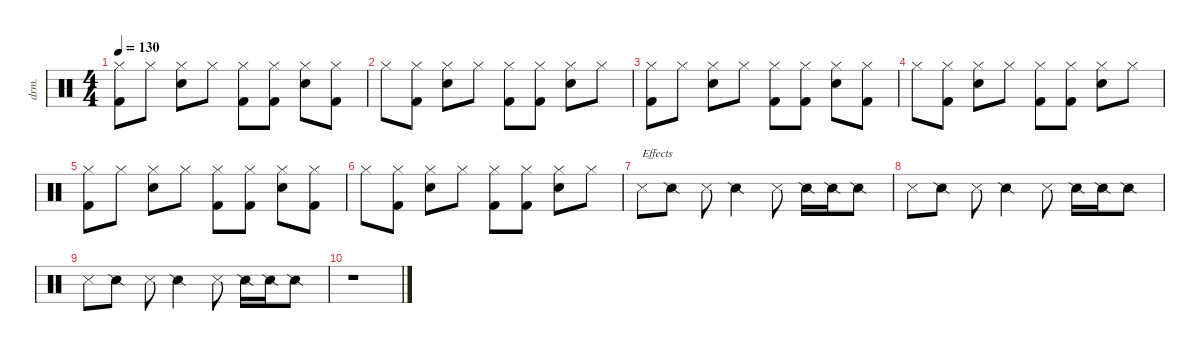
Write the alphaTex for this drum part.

\defaultSystemsLayout 4
\hideDynamics
\bracketExtendMode nobrackets
\otherSystemsTrackNameOrientation horizontal
\track ("Jimmy" "drm.") {instrument percussion}
\staff {score}
\articulation defaults
\ts (4 4)
\tempo 130
\clef neutral
\ks c
("Hi-Hat (closed)" "Kick (hit) 2").8{dy f beam Down} "Hi-Hat (closed)".8{beam Down} ("Hi-Hat (closed)" "Snare (hit) 2").8{beam Down} "Hi-Hat (closed)".8{beam Down} ("Hi-Hat (closed)" "Kick (hit) 2").8{beam Down} ("Hi-Hat (closed)" "Kick (hit) 2").8{beam Down} ("Hi-Hat (closed)" "Snare (hit) 2").8{beam Down} ("Hi-Hat (closed)" "Kick (hit) 2").8{beam Down} |
"Hi-Hat (closed)".8{beam Down} ("Hi-Hat (closed)" "Kick (hit) 2").8{beam Down} ("Hi-Hat (closed)" "Snare (hit) 2").8{beam Down} "Hi-Hat (closed)".8{beam Down} ("Hi-Hat (closed)" "Kick (hit) 2").8{beam Down} ("Hi-Hat (closed)" "Kick (hit) 2").8{beam Down} ("Hi-Hat (closed)" "Snare (hit) 2").8{beam Down} "Hi-Hat (closed)".8{beam Down} |
("Hi-Hat (closed)" "Kick (hit) 2").8{beam Down} "Hi-Hat (closed)".8{beam Down} ("Hi-Hat (closed)" "Snare (hit) 2").8{beam Down} "Hi-Hat (closed)".8{beam Down} ("Hi-Hat (closed)" "Kick (hit) 2").8{beam Down} ("Hi-Hat (closed)" "Kick (hit) 2").8{beam Down} ("Hi-Hat (closed)" "Snare (hit) 2").8{beam Down} ("Hi-Hat (closed)" "Kick (hit) 2").8{beam Down} |
"Hi-Hat (closed)".8{beam Down} ("Hi-Hat (closed)" "Kick (hit) 2").8{beam Down} ("Hi-Hat (closed)" "Snare (hit) 2").8{beam Down} "Hi-Hat (closed)".8{beam Down} ("Hi-Hat (closed)" "Kick (hit) 2").8{beam Down} ("Hi-Hat (closed)" "Kick (hit) 2").8{beam Down} ("Hi-Hat (closed)" "Snare (hit) 2").8{beam Down} "Hi-Hat (closed)".8{beam Down} |
("Hi-Hat (closed)" "Kick (hit) 2").8{beam Down} "Hi-Hat (closed)".8{beam Down} ("Hi-Hat (closed)" "Snare (hit) 2").8{beam Down} "Hi-Hat (closed)".8{beam Down} ("Hi-Hat (closed)" "Kick (hit) 2").8{beam Down} ("Hi-Hat (closed)" "Kick (hit) 2").8{beam Down} ("Hi-Hat (closed)" "Snare (hit) 2").8{beam Down} ("Hi-Hat (closed)" "Kick (hit) 2").8{beam Down} |
"Hi-Hat (closed)".8{beam Down} ("Hi-Hat (closed)" "Kick (hit) 2").8{beam Down} ("Hi-Hat (closed)" "Snare (hit) 2").8{beam Down} "Hi-Hat (closed)".8{beam Down} ("Hi-Hat (closed)" "Kick (hit) 2").8{beam Down} ("Hi-Hat (closed)" "Kick (hit) 2").8{beam Down} ("Hi-Hat (closed)" "Snare (hit) 2").8{beam Down} "Hi-Hat (closed)".8{beam Down} |
"Metronome (hit)".8{txt "Effects" beam Down} "Snare (side stick) 2".8{beam Down} "Metronome (hit)".8{beam Down} "Snare (side stick) 2".4{beam Down} "Metronome (hit)".8{beam Down} "Snare (side stick) 2".16{beam Down} "Snare (side stick) 2".16{beam Down} "Snare (side stick) 2".8{beam Down} |
"Metronome (hit)".8{beam Down} "Snare (side stick) 2".8{beam Down} "Metronome (hit)".8{beam Down} "Snare (side stick) 2".4{beam Down} "Metronome (hit)".8{beam Down} "Snare (side stick) 2".16{beam Down} "Snare (side stick) 2".16{beam Down} "Snare (side stick) 2".8{beam Down} |
"Metronome (hit)".8{beam Down} "Snare (side stick) 2".8{beam Down} "Metronome (hit)".8{beam Down} "Snare (side stick) 2".4{beam Down} "Metronome (hit)".8{beam Down} "Snare (side stick) 2".16{beam Down} "Snare (side stick) 2".16{beam Down} "Snare (side stick) 2".8{beam Down} |
r.1{beam Down}
